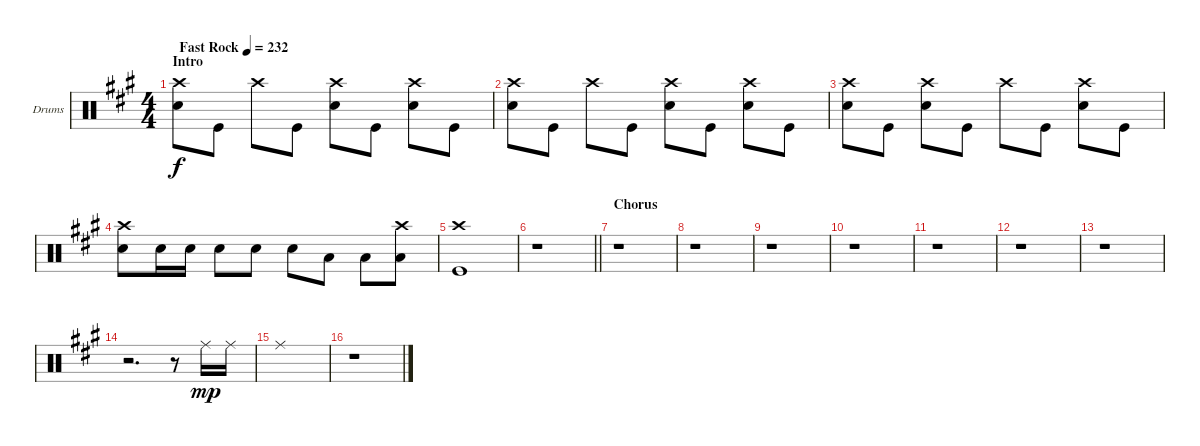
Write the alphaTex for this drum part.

\defaultSystemsLayout 4
\bracketExtendMode groupsimilarinstruments
\firstSystemTrackNameOrientation horizontal
\otherSystemsTrackNameOrientation horizontal
\track ("Drums" "Drums") {instrument percussion}
\staff {score}
\articulation defaults
\ts (4 4)
\section ("" "Intro")
\tempo (232 "Fast Rock")
\clef neutral
\scale
0.526971
\ks a
("Snare (hit) 2" "Crash high (hit)").8{dy f} "Kick (hit)".8 "Crash high (hit)".8 "Kick (hit)".8 ("Snare (hit) 2" "Crash high (hit)").8 "Kick (hit)".8 ("Snare (hit) 2" "Crash high (hit)").8 "Kick (hit)".8 |
\scale
0.236515 ("Snare (hit) 2" "Crash high (hit)").8 "Kick (hit)".8 "Crash high (hit)".8 "Kick (hit)".8 ("Snare (hit) 2" "Crash high (hit)").8 "Kick (hit)".8 ("Snare (hit) 2" "Crash high (hit)").8 "Kick (hit)".8 |
\scale
0.236515 ("Snare (hit) 2" "Crash high (hit)").8 "Kick (hit)".8 ("Snare (hit) 2" "Crash high (hit)").8 "Kick (hit)".8 "Crash high (hit)".8 "Kick (hit)".8 ("Snare (hit) 2" "Crash high (hit)").8 "Kick (hit)".8 |
\scale
0.333333 ("Snare (hit) 2" "Crash high (hit)").8 "Snare (hit) 2".16 "Snare (hit) 2".16 "Snare (hit) 2".8 "Snare (hit) 2".8 "Snare (hit) 2".8 "Low Tom (hit)".8 "Low Tom (hit)".8 ("Low Tom (hit)" "Crash high (hit)").8 |
\scale
0.333333 ("Kick (hit)" "Crash high (hit)").1 |
\scale
0.333333
\barLineRight lightlight
r.1 |
\section ("" "Chorus")
\scale
0.333333 r.1 |
\scale
0.333333 r.1 |
\scale
0.333333 r.1 |
\scale
0.333333 r.1 |
\scale
0.333333 r.1 |
\scale
0.333333 r.1 |
\scale
0.333333 r.1 |
\scale
0.333333 r.2{d} r.8 "Ride (middle)".16{dy mp} "Ride (middle)".16 |
\scale
0.333333 "Ride (middle)".1 |
\scale
0.333333 r.1
